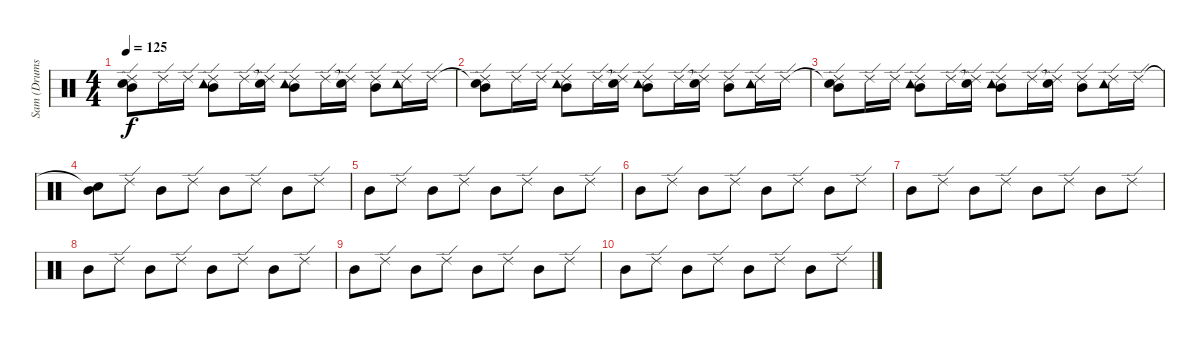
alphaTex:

\track ("Sam (Drums)" "Sam (Drums") {instrument percussion}
\staff {score}
\articulation defaults
\ts (4 4)
\tempo 125
\clef neutral
\ks c
("Snare (hit)"{t} "Ride (edge) 2" "Mid Tom (hit)").8{dy f} "Ride (edge) 2".16 "Ride (edge) 2".16 ("Tambourine (hit)" "Ride (edge) 2" "Mid Tom (hit)").8 "Ride (edge) 2".16 ("Snare (hit)"{t} "Ride (edge) 2").16 ("Tambourine (hit)" "Ride (edge) 2" "Mid Tom (hit)").8 "Ride (edge) 2".16 ("Snare (hit)"{t} "Ride (edge) 2").16 ("Ride (edge) 2" "Mid Tom (hit)").8 ("Tambourine (hit)" "Ride (edge) 2").16 "Ride (edge) 2".16 |
("Snare (hit)"{t} "Ride (edge) 2" "Mid Tom (hit)").8 "Ride (edge) 2".16 "Ride (edge) 2".16 ("Tambourine (hit)" "Ride (edge) 2" "Mid Tom (hit)").8 "Ride (edge) 2".16 ("Snare (hit)"{t} "Ride (edge) 2").16 ("Tambourine (hit)" "Ride (edge) 2" "Mid Tom (hit)").8 "Ride (edge) 2".16 ("Snare (hit)"{t} "Ride (edge) 2").16 ("Ride (edge) 2" "Mid Tom (hit)").8 ("Tambourine (hit)" "Ride (edge) 2").16 "Ride (edge) 2".16 |
("Snare (hit)"{t} "Ride (edge) 2" "Mid Tom (hit)").8 "Ride (edge) 2".16 "Ride (edge) 2".16 ("Tambourine (hit)" "Ride (edge) 2" "Mid Tom (hit)").8 "Ride (edge) 2".16 ("Snare (hit)"{t} "Ride (edge) 2").16 ("Tambourine (hit)" "Ride (edge) 2" "Mid Tom (hit)").8 "Ride (edge) 2".16 ("Snare (hit)"{t} "Ride (edge) 2").16 ("Ride (edge) 2" "Mid Tom (hit)").8 ("Tambourine (hit)" "Ride (edge) 2").16 "Ride (edge) 2".16 |
("Snare (hit)"{t} "Mid Tom (hit)").8 "Ride (edge) 2".8 "Mid Tom (hit)".8 "Ride (edge) 2".8 "Mid Tom (hit)".8 "Ride (edge) 2".8 "Mid Tom (hit)".8 "Ride (edge) 2".8 |
"Mid Tom (hit)".8 "Ride (edge) 2".8 "Mid Tom (hit)".8 "Ride (edge) 2".8 "Mid Tom (hit)".8 "Ride (edge) 2".8 "Mid Tom (hit)".8 "Ride (edge) 2".8 |
"Mid Tom (hit)".8 "Ride (edge) 2".8 "Mid Tom (hit)".8 "Ride (edge) 2".8 "Mid Tom (hit)".8 "Ride (edge) 2".8 "Mid Tom (hit)".8 "Ride (edge) 2".8 |
"Mid Tom (hit)".8 "Ride (edge) 2".8 "Mid Tom (hit)".8 "Ride (edge) 2".8 "Mid Tom (hit)".8 "Ride (edge) 2".8 "Mid Tom (hit)".8 "Ride (edge) 2".8 |
"Mid Tom (hit)".8 "Ride (edge) 2".8 "Mid Tom (hit)".8 "Ride (edge) 2".8 "Mid Tom (hit)".8 "Ride (edge) 2".8 "Mid Tom (hit)".8 "Ride (edge) 2".8 |
"Mid Tom (hit)".8 "Ride (edge) 2".8 "Mid Tom (hit)".8 "Ride (edge) 2".8 "Mid Tom (hit)".8 "Ride (edge) 2".8 "Mid Tom (hit)".8 "Ride (edge) 2".8 |
"Mid Tom (hit)".8 "Ride (edge) 2".8 "Mid Tom (hit)".8 "Ride (edge) 2".8 "Mid Tom (hit)".8 "Ride (edge) 2".8 "Mid Tom (hit)".8 "Ride (edge) 2".8
